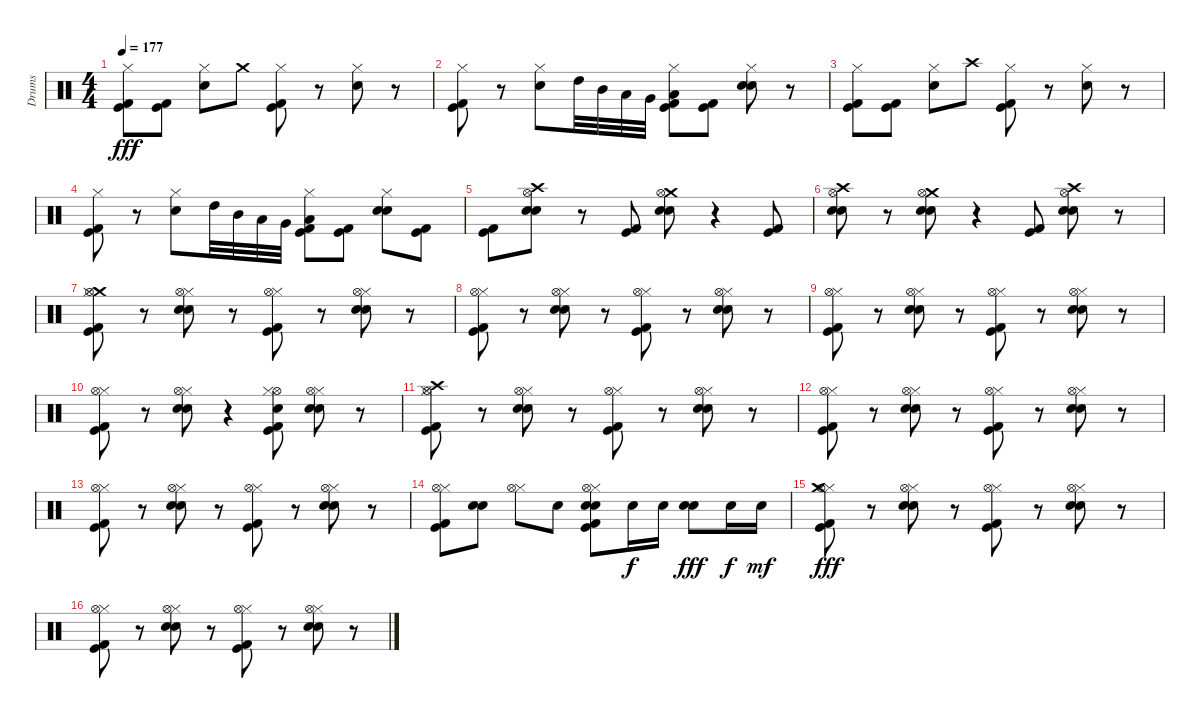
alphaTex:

\track ("Drums" "Drums") {instrument percussion}
\staff {score}
\articulation defaults
\ts (4 4)
\tempo 177
\clef neutral
\ks c
("Hi-Hat (closed)" "Kick (hit) 2" "Kick (hit)").8{dy fff} ("Kick (hit) 2" "Kick (hit)").8 ("Hi-Hat (closed)" "Electric Snare (hit)").8 "Crash medium (hit)".8 ("Hi-Hat (closed)" "Kick (hit) 2" "Kick (hit)").8 r.8 ("Hi-Hat (closed)" "Electric Snare (hit)").8 r.8 |
("Hi-Hat (closed)" "Kick (hit) 2" "Kick (hit)").8 r.8 ("Hi-Hat (closed)" "Electric Snare (hit)").8 "High Tom (hit)".32 "Mid Tom (hit)".32 "Low Tom (hit)".32 "Very Low Tom (hit)".32 ("Hi-Hat (closed)" "Kick (hit) 2" "Kick (hit)" "Low Floor Tom (hit)").8 ("Kick (hit) 2" "Kick (hit)").8 ("Hi-Hat (closed)" "Electric Snare (hit)" "Snare (hit) 2").8 r.8 |
("Hi-Hat (closed)" "Kick (hit) 2" "Kick (hit)").8 ("Kick (hit) 2" "Kick (hit)").8 ("Hi-Hat (closed)" "Electric Snare (hit)").8 "Crash high (hit)".8 ("Hi-Hat (closed)" "Kick (hit) 2" "Kick (hit)").8 r.8 ("Hi-Hat (closed)" "Electric Snare (hit)").8 r.8 |
("Hi-Hat (closed)" "Kick (hit) 2" "Kick (hit)").8 r.8 ("Hi-Hat (closed)" "Electric Snare (hit)").8 "High Tom (hit)".32 "Mid Tom (hit)".32 "Low Tom (hit)".32 "Very Low Tom (hit)".32 ("Hi-Hat (closed)" "Kick (hit) 2" "Kick (hit)" "Low Floor Tom (hit)").8 ("Kick (hit) 2" "Kick (hit)").8 ("Hi-Hat (closed)" "Electric Snare (hit)" "Snare (hit) 2").8 ("Kick (hit) 2" "Kick (hit)").8 |
("Kick (hit) 2" "Kick (hit)").8 ("Crash high (hit)" "Electric Snare (hit)" "Snare (hit) 2" "Hi-Hat (open)").8 r.8 ("Kick (hit) 2" "Kick (hit)").8 ("Crash medium (hit)" "Hi-Hat (open)" "Electric Snare (hit)" "Snare (hit) 2").8 r.4 ("Kick (hit) 2" "Kick (hit)").8 |
("Crash high (hit)" "Hi-Hat (open)" "Electric Snare (hit)" "Snare (hit) 2").8 r.8 ("Crash medium (hit)" "Hi-Hat (open)" "Electric Snare (hit)" "Snare (hit) 2").8 r.4 ("Kick (hit) 2" "Kick (hit)").8 ("Crash high (hit)" "Hi-Hat (open)" "Electric Snare (hit)" "Snare (hit) 2").8 r.8 |
("Crash medium (hit)" "Kick (hit) 2" "Kick (hit)" "Hi-Hat (closed)" "Hi-Hat (open)").8 r.8 ("Electric Snare (hit)" "Snare (hit) 2" "Hi-Hat (closed)" "Hi-Hat (open)").8 r.8 ("Kick (hit) 2" "Kick (hit)" "Hi-Hat (closed)" "Hi-Hat (open)").8 r.8 ("Electric Snare (hit)" "Snare (hit) 2" "Hi-Hat (closed)" "Hi-Hat (open)").8 r.8 |
("Kick (hit) 2" "Kick (hit)" "Hi-Hat (closed)" "Hi-Hat (open)").8 r.8 ("Electric Snare (hit)" "Snare (hit) 2" "Hi-Hat (closed)" "Hi-Hat (open)").8 r.8 ("Kick (hit) 2" "Kick (hit)" "Hi-Hat (closed)" "Hi-Hat (open)").8 r.8 ("Electric Snare (hit)" "Snare (hit) 2" "Hi-Hat (closed)" "Hi-Hat (open)").8 r.8 |
("Kick (hit) 2" "Kick (hit)" "Hi-Hat (closed)" "Hi-Hat (open)").8 r.8 ("Electric Snare (hit)" "Snare (hit) 2" "Hi-Hat (closed)" "Hi-Hat (open)").8 r.8 ("Kick (hit) 2" "Kick (hit)" "Hi-Hat (closed)" "Hi-Hat (open)").8 r.8 ("Electric Snare (hit)" "Snare (hit) 2" "Hi-Hat (closed)" "Hi-Hat (open)").8 r.8 |
("Kick (hit) 2" "Kick (hit)" "Hi-Hat (closed)" "Hi-Hat (open)").8 r.8 ("Hi-Hat (closed)" "Electric Snare (hit)" "Snare (hit) 2" "Hi-Hat (open)").8 r.4 ("Electric Snare (hit)" "Hi-Hat (open)" "Hi-Hat (closed)" "Kick (hit) 2" "Kick (hit)").8 ("Hi-Hat (closed)" "Electric Snare (hit)" "Snare (hit) 2" "Hi-Hat (open)").8 r.8 |
("Kick (hit) 2" "Kick (hit)" "Hi-Hat (closed)" "Hi-Hat (open)" "Crash high (hit)").8 r.8 ("Electric Snare (hit)" "Snare (hit) 2" "Hi-Hat (closed)" "Hi-Hat (open)").8 r.8 ("Kick (hit) 2" "Kick (hit)" "Hi-Hat (closed)" "Hi-Hat (open)").8 r.8 ("Electric Snare (hit)" "Snare (hit) 2" "Hi-Hat (closed)" "Hi-Hat (open)").8 r.8 |
("Kick (hit) 2" "Kick (hit)" "Hi-Hat (closed)" "Hi-Hat (open)").8 r.8 ("Electric Snare (hit)" "Snare (hit) 2" "Hi-Hat (closed)" "Hi-Hat (open)").8 r.8 ("Kick (hit) 2" "Kick (hit)" "Hi-Hat (closed)" "Hi-Hat (open)").8 r.8 ("Electric Snare (hit)" "Snare (hit) 2" "Hi-Hat (closed)" "Hi-Hat (open)").8 r.8 |
("Kick (hit) 2" "Kick (hit)" "Hi-Hat (closed)" "Hi-Hat (open)").8 r.8 ("Electric Snare (hit)" "Snare (hit) 2" "Hi-Hat (closed)" "Hi-Hat (open)").8 r.8 ("Kick (hit) 2" "Kick (hit)" "Hi-Hat (closed)" "Hi-Hat (open)").8 r.8 ("Electric Snare (hit)" "Snare (hit) 2" "Hi-Hat (closed)" "Hi-Hat (open)").8 r.8 |
("Kick (hit) 2" "Kick (hit)" "Hi-Hat (closed)" "Hi-Hat (open)").8 ("Electric Snare (hit)" "Snare (hit) 2").8 ("Hi-Hat (closed)" "Hi-Hat (open)").8 "Snare (hit) 2".8 ("Kick (hit) 2" "Kick (hit)" "Hi-Hat (closed)" "Hi-Hat (open)" "Electric Snare (hit)" "Snare (hit) 2").8 "Electric Snare (hit)".16{dy f} "Electric Snare (hit)".16 ("Electric Snare (hit)" "Snare (hit) 2").8{dy fff} "Electric Snare (hit)".16{dy f} "Electric Snare (hit)".16{dy mf} |
("Kick (hit) 2" "Kick (hit)" "Hi-Hat (closed)" "Hi-Hat (open)" "Crash medium (hit)").8{dy fff} r.8 ("Electric Snare (hit)" "Snare (hit) 2" "Hi-Hat (closed)" "Hi-Hat (open)").8 r.8 ("Kick (hit) 2" "Kick (hit)" "Hi-Hat (closed)" "Hi-Hat (open)").8 r.8 ("Electric Snare (hit)" "Snare (hit) 2" "Hi-Hat (closed)" "Hi-Hat (open)").8 r.8 |
("Kick (hit) 2" "Kick (hit)" "Hi-Hat (closed)" "Hi-Hat (open)").8 r.8 ("Electric Snare (hit)" "Snare (hit) 2" "Hi-Hat (closed)" "Hi-Hat (open)").8 r.8 ("Kick (hit) 2" "Kick (hit)" "Hi-Hat (closed)" "Hi-Hat (open)").8 r.8 ("Electric Snare (hit)" "Snare (hit) 2" "Hi-Hat (closed)" "Hi-Hat (open)").8 r.8
